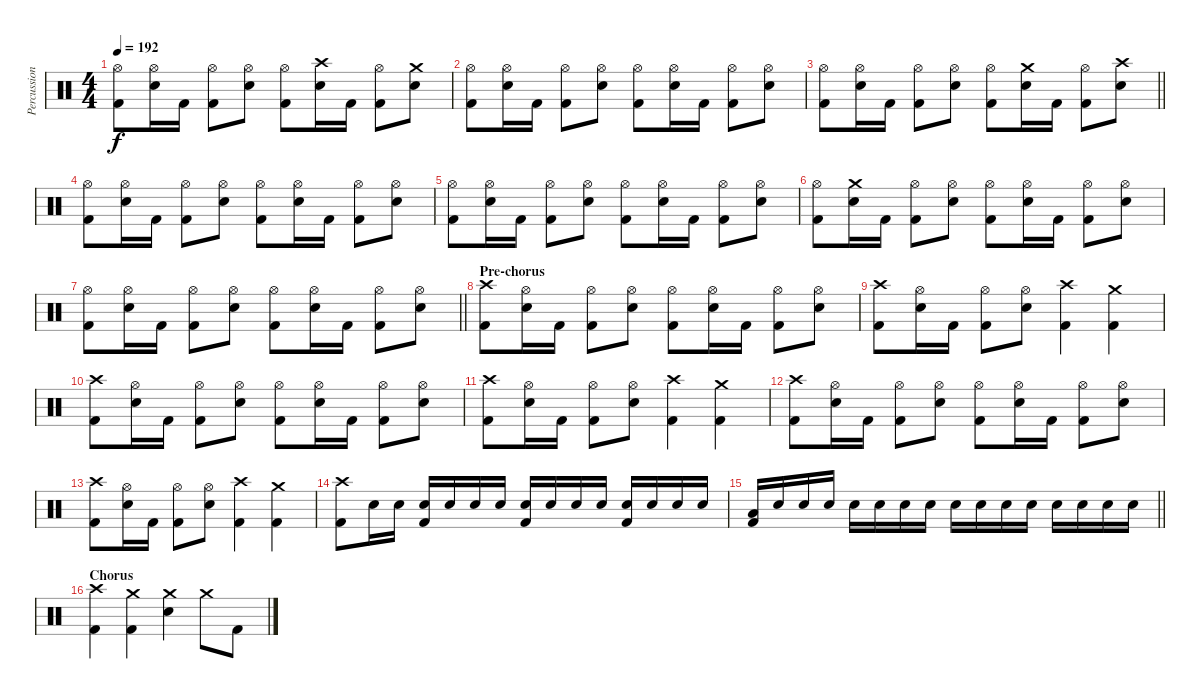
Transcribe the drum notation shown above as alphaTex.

\track ("Percussion" "Percussion") {instrument percussion}
\staff {score}
\articulation defaults
\ts (4 4)
\tempo 192
\clef neutral
\ks c
("Hi-Hat (open)" "Kick (hit) 2").8{dy f} ("Hi-Hat (open)" "Electric Snare (hit)").16 "Kick (hit) 2".16 ("Hi-Hat (open)" "Kick (hit) 2").8 ("Hi-Hat (open)" "Electric Snare (hit)").8 ("Hi-Hat (open)" "Kick (hit) 2").8 ("Crash high (hit)" "Electric Snare (hit)").16 "Kick (hit) 2".16 ("Hi-Hat (open)" "Kick (hit) 2").8 ("Crash medium (hit)" "Electric Snare (hit)").8 |
("Hi-Hat (open)" "Kick (hit) 2").8 ("Hi-Hat (open)" "Electric Snare (hit)").16 "Kick (hit) 2".16 ("Hi-Hat (open)" "Kick (hit) 2").8 ("Hi-Hat (open)" "Electric Snare (hit)").8 ("Hi-Hat (open)" "Kick (hit) 2").8 ("Hi-Hat (open)" "Electric Snare (hit)").16 "Kick (hit) 2".16 ("Hi-Hat (open)" "Kick (hit) 2").8 ("Hi-Hat (open)" "Electric Snare (hit)").8 |
\barLineRight lightlight
("Hi-Hat (open)" "Kick (hit) 2").8 ("Hi-Hat (open)" "Electric Snare (hit)").16 "Kick (hit) 2".16 ("Hi-Hat (open)" "Kick (hit) 2").8 ("Hi-Hat (open)" "Electric Snare (hit)").8 ("Hi-Hat (open)" "Kick (hit) 2").8 ("Crash medium (hit)" "Electric Snare (hit)").16 "Kick (hit) 2".16 ("Hi-Hat (open)" "Kick (hit) 2").8 ("Crash high (hit)" "Electric Snare (hit)").8 |
("Hi-Hat (open)" "Kick (hit) 2").8 ("Hi-Hat (open)" "Electric Snare (hit)").16 "Kick (hit) 2".16 ("Hi-Hat (open)" "Kick (hit) 2").8 ("Hi-Hat (open)" "Electric Snare (hit)").8 ("Hi-Hat (open)" "Kick (hit) 2").8 ("Hi-Hat (open)" "Electric Snare (hit)").16 "Kick (hit) 2".16 ("Hi-Hat (open)" "Kick (hit) 2").8 ("Hi-Hat (open)" "Electric Snare (hit)").8 |
("Hi-Hat (open)" "Kick (hit) 2").8 ("Hi-Hat (open)" "Electric Snare (hit)").16 "Kick (hit) 2".16 ("Hi-Hat (open)" "Kick (hit) 2").8 ("Hi-Hat (open)" "Electric Snare (hit)").8 ("Hi-Hat (open)" "Kick (hit) 2").8 ("Hi-Hat (open)" "Electric Snare (hit)").16 "Kick (hit) 2".16 ("Hi-Hat (open)" "Kick (hit) 2").8 ("Hi-Hat (open)" "Electric Snare (hit)").8 |
("Hi-Hat (open)" "Kick (hit) 2").8 ("Crash medium (hit)" "Electric Snare (hit)").16 "Kick (hit) 2".16 ("Hi-Hat (open)" "Kick (hit) 2").8 ("Hi-Hat (open)" "Electric Snare (hit)").8 ("Hi-Hat (open)" "Kick (hit) 2").8 ("Hi-Hat (open)" "Electric Snare (hit)").16 "Kick (hit) 2".16 ("Hi-Hat (open)" "Kick (hit) 2").8 ("Hi-Hat (open)" "Electric Snare (hit)").8 |
\barLineRight lightlight
("Hi-Hat (open)" "Kick (hit) 2").8 ("Hi-Hat (open)" "Electric Snare (hit)").16 "Kick (hit) 2".16 ("Hi-Hat (open)" "Kick (hit) 2").8 ("Hi-Hat (open)" "Electric Snare (hit)").8 ("Hi-Hat (open)" "Kick (hit) 2").8 ("Hi-Hat (open)" "Electric Snare (hit)").16 "Kick (hit) 2".16 ("Hi-Hat (open)" "Kick (hit) 2").8 ("Hi-Hat (open)" "Electric Snare (hit)").8 |
\section ("" "Pre-chorus")
("Crash high (hit)" "Kick (hit) 2").8 ("Hi-Hat (open)" "Electric Snare (hit)").16 "Kick (hit) 2".16 ("Hi-Hat (open)" "Kick (hit) 2").8 ("Hi-Hat (open)" "Electric Snare (hit)").8 ("Hi-Hat (open)" "Kick (hit) 2").8 ("Hi-Hat (open)" "Electric Snare (hit)").16 "Kick (hit) 2".16 ("Hi-Hat (open)" "Kick (hit) 2").8 ("Hi-Hat (open)" "Electric Snare (hit)").8 |
("Crash high (hit)" "Kick (hit) 2").8 ("Hi-Hat (open)" "Electric Snare (hit)").16 "Kick (hit) 2".16 ("Hi-Hat (open)" "Kick (hit) 2").8 ("Hi-Hat (open)" "Electric Snare (hit)").8 ("Crash high (hit)" "Kick (hit) 2").4 ("Crash medium (hit)" "Kick (hit) 2").4 |
("Crash high (hit)" "Kick (hit) 2").8 ("Hi-Hat (open)" "Electric Snare (hit)").16 "Kick (hit) 2".16 ("Hi-Hat (open)" "Kick (hit) 2").8 ("Hi-Hat (open)" "Electric Snare (hit)").8 ("Hi-Hat (open)" "Kick (hit) 2").8 ("Hi-Hat (open)" "Electric Snare (hit)").16 "Kick (hit) 2".16 ("Hi-Hat (open)" "Kick (hit) 2").8 ("Hi-Hat (open)" "Electric Snare (hit)").8 |
("Crash high (hit)" "Kick (hit) 2").8 ("Hi-Hat (open)" "Electric Snare (hit)").16 "Kick (hit) 2".16 ("Hi-Hat (open)" "Kick (hit) 2").8 ("Hi-Hat (open)" "Electric Snare (hit)").8 ("Crash high (hit)" "Kick (hit) 2").4 ("Crash medium (hit)" "Kick (hit) 2").4 |
("Crash high (hit)" "Kick (hit) 2").8 ("Hi-Hat (open)" "Electric Snare (hit)").16 "Kick (hit) 2".16 ("Hi-Hat (open)" "Kick (hit) 2").8 ("Hi-Hat (open)" "Electric Snare (hit)").8 ("Hi-Hat (open)" "Kick (hit) 2").8 ("Hi-Hat (open)" "Electric Snare (hit)").16 "Kick (hit) 2".16 ("Hi-Hat (open)" "Kick (hit) 2").8 ("Hi-Hat (open)" "Electric Snare (hit)").8 |
("Crash high (hit)" "Kick (hit) 2").8 ("Hi-Hat (open)" "Electric Snare (hit)").16 "Kick (hit) 2".16 ("Hi-Hat (open)" "Kick (hit) 2").8 ("Hi-Hat (open)" "Electric Snare (hit)").8 ("Crash high (hit)" "Kick (hit) 2").4 ("Crash medium (hit)" "Kick (hit) 2").4 |
("Crash high (hit)" "Kick (hit) 2").8 "Electric Snare (hit)".16 "Electric Snare (hit)".16 ("Electric Snare (hit)" "Kick (hit) 2").16 "Electric Snare (hit)".16 "Electric Snare (hit)".16 "Electric Snare (hit)".16 ("Electric Snare (hit)" "Kick (hit) 2").16 "Electric Snare (hit)".16 "Electric Snare (hit)".16 "Electric Snare (hit)".16 ("Electric Snare (hit)" "Kick (hit) 2").16 "Electric Snare (hit)".16 "Electric Snare (hit)".16 "Electric Snare (hit)".16 |
\barLineRight lightlight
("Low Tom (hit)" "Kick (hit) 2").16 "Electric Snare (hit)".16 "Electric Snare (hit)".16 "Electric Snare (hit)".16 "Electric Snare (hit)".16 "Electric Snare (hit)".16 "Electric Snare (hit)".16 "Electric Snare (hit)".16 "Electric Snare (hit)".16 "Electric Snare (hit)".16 "Electric Snare (hit)".16 "Electric Snare (hit)".16 "Electric Snare (hit)".16 "Electric Snare (hit)".16 "Electric Snare (hit)".16 "Electric Snare (hit)".16 |
\section ("" "Chorus")
("Crash high (hit)" "Kick (hit) 2").4 ("Crash medium (hit)" "Kick (hit) 2").4 ("Crash medium (hit)" "Electric Snare (hit)").4 "Crash medium (hit)".8 "Kick (hit) 2".8
